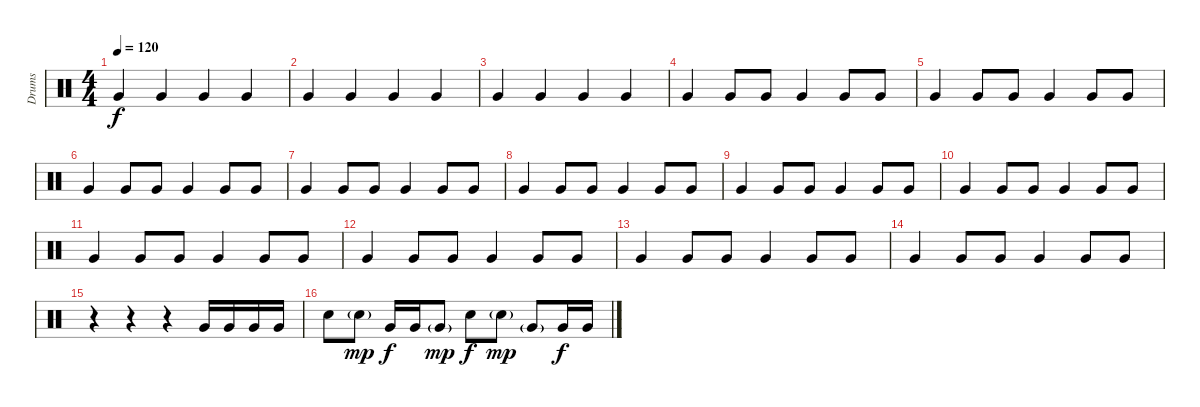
\track ("Drums" "Drums") {instrument percussion}
\staff {score}
\articulation defaults
\ts (4 4)
\tempo 120
\clef neutral
\ks c "Very Low Tom (hit)".4{dy f} "Very Low Tom (hit)".4 "Very Low Tom (hit)".4 "Very Low Tom (hit)".4
|
"Very Low Tom (hit)".4 "Very Low Tom (hit)".4 "Very Low Tom (hit)".4 "Very Low Tom (hit)".4 |
"Very Low Tom (hit)".4 "Very Low Tom (hit)".4 "Very Low Tom (hit)".4 "Very Low Tom (hit)".4 |
"Very Low Tom (hit)".4 "Very Low Tom (hit)".8 "Very Low Tom (hit)".8 "Very Low Tom (hit)".4 "Very Low Tom (hit)".8 "Very Low Tom (hit)".8 |
"Very Low Tom (hit)".4 "Very Low Tom (hit)".8 "Very Low Tom (hit)".8 "Very Low Tom (hit)".4 "Very Low Tom (hit)".8 "Very Low Tom (hit)".8 |
"Very Low Tom (hit)".4 "Very Low Tom (hit)".8 "Very Low Tom (hit)".8 "Very Low Tom (hit)".4 "Very Low Tom (hit)".8 "Very Low Tom (hit)".8 |
"Very Low Tom (hit)".4 "Very Low Tom (hit)".8 "Very Low Tom (hit)".8 "Very Low Tom (hit)".4 "Very Low Tom (hit)".8 "Very Low Tom (hit)".8 |
"Very Low Tom (hit)".4 "Very Low Tom (hit)".8 "Very Low Tom (hit)".8 "Very Low Tom (hit)".4 "Very Low Tom (hit)".8 "Very Low Tom (hit)".8 |
"Very Low Tom (hit)".4 "Very Low Tom (hit)".8 "Very Low Tom (hit)".8 "Very Low Tom (hit)".4 "Very Low Tom (hit)".8 "Very Low Tom (hit)".8 |
"Very Low Tom (hit)".4 "Very Low Tom (hit)".8 "Very Low Tom (hit)".8 "Very Low Tom (hit)".4 "Very Low Tom (hit)".8 "Very Low Tom (hit)".8 |
"Very Low Tom (hit)".4 "Very Low Tom (hit)".8 "Very Low Tom (hit)".8 "Very Low Tom (hit)".4 "Very Low Tom (hit)".8 "Very Low Tom (hit)".8 |
"Very Low Tom (hit)".4 "Very Low Tom (hit)".8 "Very Low Tom (hit)".8 "Very Low Tom (hit)".4 "Very Low Tom (hit)".8 "Very Low Tom (hit)".8 |
"Very Low Tom (hit)".4 "Very Low Tom (hit)".8 "Very Low Tom (hit)".8 "Very Low Tom (hit)".4 "Very Low Tom (hit)".8 "Very Low Tom (hit)".8 |
"Very Low Tom (hit)".4 "Very Low Tom (hit)".8 "Very Low Tom (hit)".8 "Very Low Tom (hit)".4 "Very Low Tom (hit)".8 "Very Low Tom (hit)".8 |
r.4 r.4 r.4 "Very Low Tom (hit)".16 "Very Low Tom (hit)".16 "Very Low Tom (hit)".16 "Very Low Tom (hit)".16 |
"Electric Snare (hit)".8 "Electric Snare (hit)"{g}.8{dy mp} "Very Low Tom (hit)".16{dy f} "Very Low Tom (hit)".16 "Very Low Tom (hit)"{g}.8{dy mp} "Electric Snare (hit)".8{dy f} "Electric Snare (hit)"{g}.8{dy mp} "Very Low Tom (hit)"{g}.8 "Very Low Tom (hit)".16{dy f} "Very Low Tom (hit)".16
